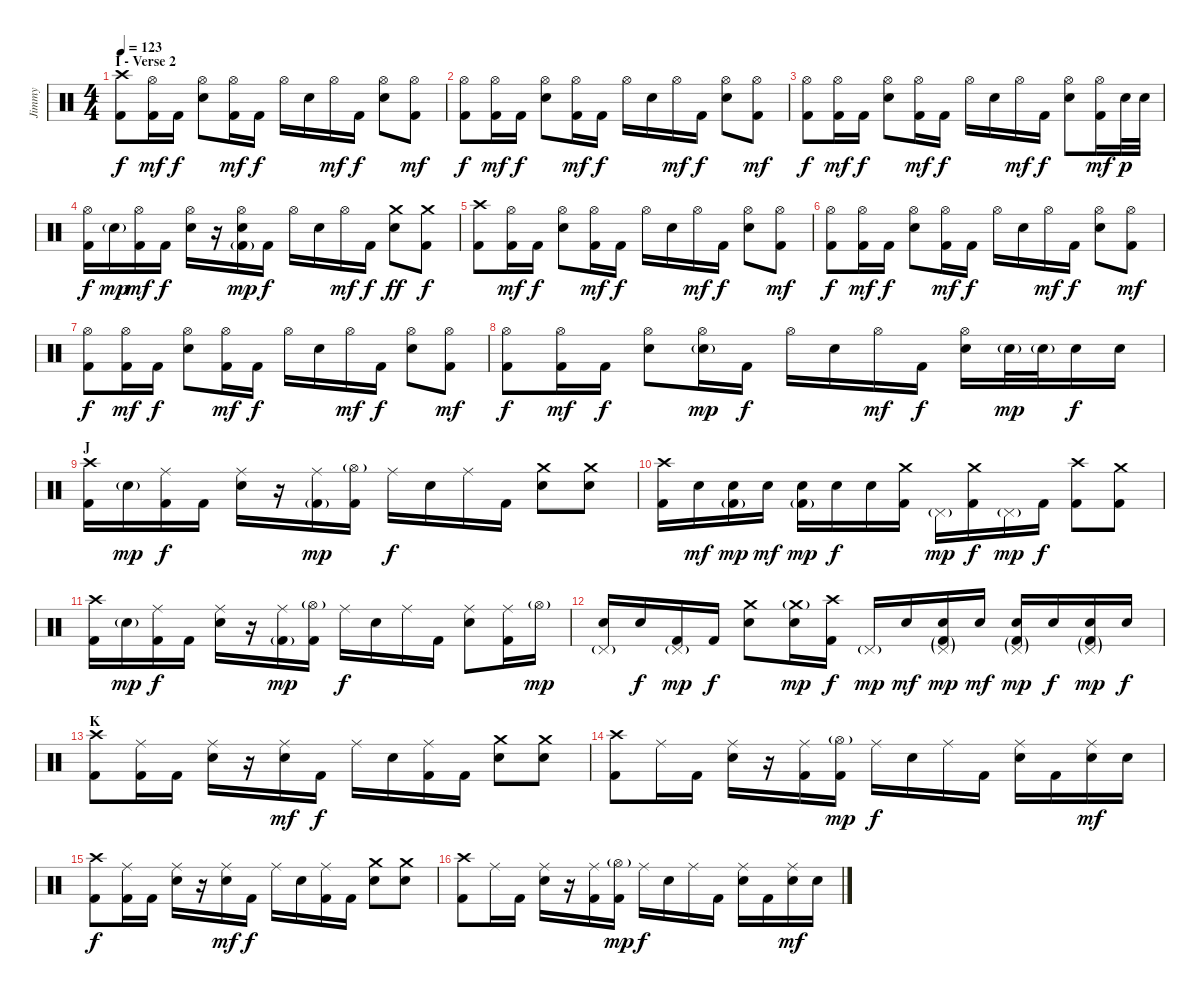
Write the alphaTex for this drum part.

\track ("Jimmy" "Jimmy") {instrument percussion}
\staff {score}
\articulation defaults
\ts (4 4)
\section ("" "I - Verse 2")
\tempo 123
\clef neutral
\ks c
("Crash high (hit)" "Kick (hit) 2").8{dy f} ("Hi-Hat (open)" "Kick (hit) 2").16{dy mf} "Kick (hit) 2".16{dy f} ("Hi-Hat (open)" "Electric Snare (hit)").8 ("Hi-Hat (open)" "Kick (hit) 2").16{dy mf} "Kick (hit) 2".16{dy f} "Hi-Hat (open)".16 "Electric Snare (hit)".16 "Hi-Hat (open)".16{dy mf} "Kick (hit) 2".16{dy f} ("Hi-Hat (open)" "Electric Snare (hit)").8 ("Hi-Hat (open)" "Kick (hit) 2").8{dy mf} |
("Hi-Hat (open)" "Kick (hit) 2").8{dy f} ("Hi-Hat (open)" "Kick (hit) 2").16{dy mf} "Kick (hit) 2".16{dy f} ("Hi-Hat (open)" "Electric Snare (hit)").8 ("Hi-Hat (open)" "Kick (hit) 2").16{dy mf} "Kick (hit) 2".16{dy f} "Hi-Hat (open)".16 "Electric Snare (hit)".16 "Hi-Hat (open)".16{dy mf} "Kick (hit) 2".16{dy f} ("Hi-Hat (open)" "Electric Snare (hit)").8 ("Hi-Hat (open)" "Kick (hit) 2").8{dy mf} |
("Hi-Hat (open)" "Kick (hit) 2").8{dy f} ("Hi-Hat (open)" "Kick (hit) 2").16{dy mf} "Kick (hit) 2".16{dy f} ("Hi-Hat (open)" "Electric Snare (hit)").8 ("Hi-Hat (open)" "Kick (hit) 2").16{dy mf} "Kick (hit) 2".16{dy f} "Hi-Hat (open)".16 "Electric Snare (hit)".16 "Hi-Hat (open)".16{dy mf} "Kick (hit) 2".16{dy f} ("Hi-Hat (open)" "Electric Snare (hit)").8 ("Hi-Hat (open)" "Kick (hit) 2").16{dy mf} "Electric Snare (hit)".32{dy p} "Electric Snare (hit)".32 |
("Hi-Hat (open)" "Kick (hit) 2").16{dy f} "Electric Snare (hit)"{g}.16{dy mp} ("Hi-Hat (open)" "Kick (hit) 2").16{dy mf} "Kick (hit) 2".16{dy f} ("Hi-Hat (open)" "Electric Snare (hit)").16 r.16 ("Hi-Hat (open)" "Electric Snare (hit)" "Kick (hit) 2"{g}).16{dy mp} "Kick (hit) 2".16{dy f} "Hi-Hat (open)".16 "Electric Snare (hit)".16 "Hi-Hat (open)".16{dy mf} "Kick (hit) 2".16{dy f} ("Crash medium (hit)" "Electric Snare (hit)").8{dy ff} ("Crash medium (hit)" "Kick (hit) 2").8{dy f} |
("Crash high (hit)" "Kick (hit) 2").8 ("Hi-Hat (open)" "Kick (hit) 2").16{dy mf} "Kick (hit) 2".16{dy f} ("Hi-Hat (open)" "Electric Snare (hit)").8 ("Hi-Hat (open)" "Kick (hit) 2").16{dy mf} "Kick (hit) 2".16{dy f} "Hi-Hat (open)".16 "Electric Snare (hit)".16 "Hi-Hat (open)".16{dy mf} "Kick (hit) 2".16{dy f} ("Hi-Hat (open)" "Electric Snare (hit)").8 ("Hi-Hat (open)" "Kick (hit) 2").8{dy mf} |
("Hi-Hat (open)" "Kick (hit) 2").8{dy f} ("Hi-Hat (open)" "Kick (hit) 2").16{dy mf} "Kick (hit) 2".16{dy f} ("Hi-Hat (open)" "Electric Snare (hit)").8 ("Hi-Hat (open)" "Kick (hit) 2").16{dy mf} "Kick (hit) 2".16{dy f} "Hi-Hat (open)".16 "Electric Snare (hit)".16 "Hi-Hat (open)".16{dy mf} "Kick (hit) 2".16{dy f} ("Hi-Hat (open)" "Electric Snare (hit)").8 ("Hi-Hat (open)" "Kick (hit) 2").8{dy mf} |
("Hi-Hat (open)" "Kick (hit) 2").8{dy f} ("Hi-Hat (open)" "Kick (hit) 2").16{dy mf} "Kick (hit) 2".16{dy f} ("Hi-Hat (open)" "Electric Snare (hit)").8 ("Hi-Hat (open)" "Kick (hit) 2").16{dy mf} "Kick (hit) 2".16{dy f} "Hi-Hat (open)".16 "Electric Snare (hit)".16 "Hi-Hat (open)".16{dy mf} "Kick (hit) 2".16{dy f} ("Hi-Hat (open)" "Electric Snare (hit)").8 ("Hi-Hat (open)" "Kick (hit) 2").8{dy mf} |
("Hi-Hat (open)" "Kick (hit) 2").8{dy f} ("Hi-Hat (open)" "Kick (hit) 2").16{dy mf} "Kick (hit) 2".16{dy f} ("Hi-Hat (open)" "Electric Snare (hit)").8 ("Hi-Hat (open)" "Electric Snare (hit)"{g}).16{dy mp} "Kick (hit) 2".16{dy f} "Hi-Hat (open)".16 "Electric Snare (hit)".16 "Hi-Hat (open)".16{dy mf} "Kick (hit) 2".16{dy f} ("Hi-Hat (open)" "Electric Snare (hit)").16 "Electric Snare (hit)"{g}.32{dy mp} "Electric Snare (hit)"{g}.32 "Electric Snare (hit)".16{dy f} "Electric Snare (hit)".16 |
\section ("" "J")
("Crash high (hit)" "Kick (hit) 2").16 "Electric Snare (hit)"{g}.16{dy mp} ("Ride (middle)" "Kick (hit) 2").16{dy f} "Kick (hit) 2".16 ("Ride (middle)" "Electric Snare (hit)").16 r.16 ("Ride (middle)" "Kick (hit) 2"{g}).16{dy mp} ("Hi-Hat (open)"{g} "Kick (hit) 2").16 "Ride (middle)".16{dy f} "Electric Snare (hit)".16 "Ride (middle)".16 "Kick (hit) 2".16 ("Crash medium (hit)" "Electric Snare (hit)").8 ("Crash medium (hit)" "Electric Snare (hit)").8 |
("Crash high (hit)" "Kick (hit) 2").16 "Electric Snare (hit)".16{dy mf} ("Electric Snare (hit)" "Kick (hit) 2"{g}).16{dy mp} "Electric Snare (hit)".16{dy mf} ("Electric Snare (hit)" "Kick (hit) 2"{g}).16{dy mp} "Electric Snare (hit)".16{dy f} "Electric Snare (hit)".16 ("Crash medium (hit)" "Kick (hit) 2").16 "Pedal Hi-Hat (hit)"{g}.16{dy mp} ("Crash medium (hit)" "Kick (hit) 2").16{dy f} "Pedal Hi-Hat (hit)"{g}.16{dy mp} "Kick (hit) 2".16{dy f} ("Crash high (hit)" "Kick (hit) 2").8 ("Crash medium (hit)" "Kick (hit) 2").8 |
("Crash high (hit)" "Kick (hit) 2").16 "Electric Snare (hit)"{g}.16{dy mp} ("Ride (middle)" "Kick (hit) 2").16{dy f} "Kick (hit) 2".16 ("Ride (middle)" "Electric Snare (hit)").16 r.16 ("Ride (middle)" "Kick (hit) 2"{g}).16{dy mp} ("Hi-Hat (open)"{g} "Kick (hit) 2").16 "Ride (middle)".16{dy f} "Electric Snare (hit)".16 "Ride (middle)".16 "Kick (hit) 2".16 ("Ride (middle)" "Electric Snare (hit)").8 ("Ride (middle)" "Kick (hit) 2").16 "Hi-Hat (open)"{g}.16{dy mp} |
("Pedal Hi-Hat (hit)"{g} "Electric Snare (hit)").16 "Electric Snare (hit)".16{dy f} ("Pedal Hi-Hat (hit)"{g} "Kick (hit) 2").16{dy mp} "Kick (hit) 2".16{dy f} ("Crash medium (hit)" "Electric Snare (hit)").8 ("Crash medium (hit)"{g} "Electric Snare (hit)").16{dy mp} ("Crash high (hit)" "Kick (hit) 2").16{dy f} "Pedal Hi-Hat (hit)"{g}.16{dy mp} "Electric Snare (hit)".16{dy mf} ("Pedal Hi-Hat (hit)"{g} "Electric Snare (hit)" "Kick (hit) 2"{g}).16{dy mp} "Electric Snare (hit)".16{dy mf} ("Pedal Hi-Hat (hit)"{g} "Electric Snare (hit)" "Kick (hit) 2"{g}).16{dy mp} "Electric Snare (hit)".16{dy f} ("Pedal Hi-Hat (hit)"{g} "Electric Snare (hit)" "Kick (hit) 2"{g}).16{dy mp} "Electric Snare (hit)".16{dy f} |
\section ("" "K")
("Crash high (hit)" "Kick (hit) 2").8 ("Ride (middle)" "Kick (hit) 2").16 "Kick (hit) 2".16 ("Ride (middle)" "Electric Snare (hit)").16 r.16 ("Ride (middle)" "Electric Snare (hit)").16{dy mf} "Kick (hit) 2".16{dy f} "Ride (middle)".16 "Electric Snare (hit)".16 ("Ride (middle)" "Kick (hit) 2").16 "Kick (hit) 2".16 ("Crash medium (hit)" "Electric Snare (hit)").8 ("Crash medium (hit)" "Electric Snare (hit)").8 |
("Crash high (hit)" "Kick (hit) 2").8 "Ride (middle)".16 "Kick (hit) 2".16 ("Ride (middle)" "Electric Snare (hit)").16 r.16 ("Ride (middle)" "Kick (hit) 2").16 ("Hi-Hat (open)"{g} "Kick (hit) 2").16{dy mp} "Ride (middle)".16{dy f} "Electric Snare (hit)".16 "Ride (middle)".16 "Kick (hit) 2".16 ("Ride (middle)" "Electric Snare (hit)").16 "Kick (hit) 2".16 ("Ride (middle)" "Electric Snare (hit)").16{dy mf} "Electric Snare (hit)".16 |
("Crash high (hit)" "Kick (hit) 2").8{dy f} ("Ride (middle)" "Kick (hit) 2").16 "Kick (hit) 2".16 ("Ride (middle)" "Electric Snare (hit)").16 r.16 ("Ride (middle)" "Electric Snare (hit)").16{dy mf} "Kick (hit) 2".16{dy f} "Ride (middle)".16 "Electric Snare (hit)".16 ("Ride (middle)" "Kick (hit) 2").16 "Kick (hit) 2".16 ("Crash medium (hit)" "Electric Snare (hit)").8 ("Crash medium (hit)" "Electric Snare (hit)").8 |
("Crash high (hit)" "Kick (hit) 2").8 "Ride (middle)".16 "Kick (hit) 2".16 ("Ride (middle)" "Electric Snare (hit)").16 r.16 ("Ride (middle)" "Kick (hit) 2").16 ("Hi-Hat (open)"{g} "Kick (hit) 2").16{dy mp} "Ride (middle)".16{dy f} "Electric Snare (hit)".16 "Ride (middle)".16 "Kick (hit) 2".16 ("Ride (middle)" "Electric Snare (hit)").16 "Kick (hit) 2".16 ("Ride (middle)" "Electric Snare (hit)").16{dy mf} "Electric Snare (hit)".16
